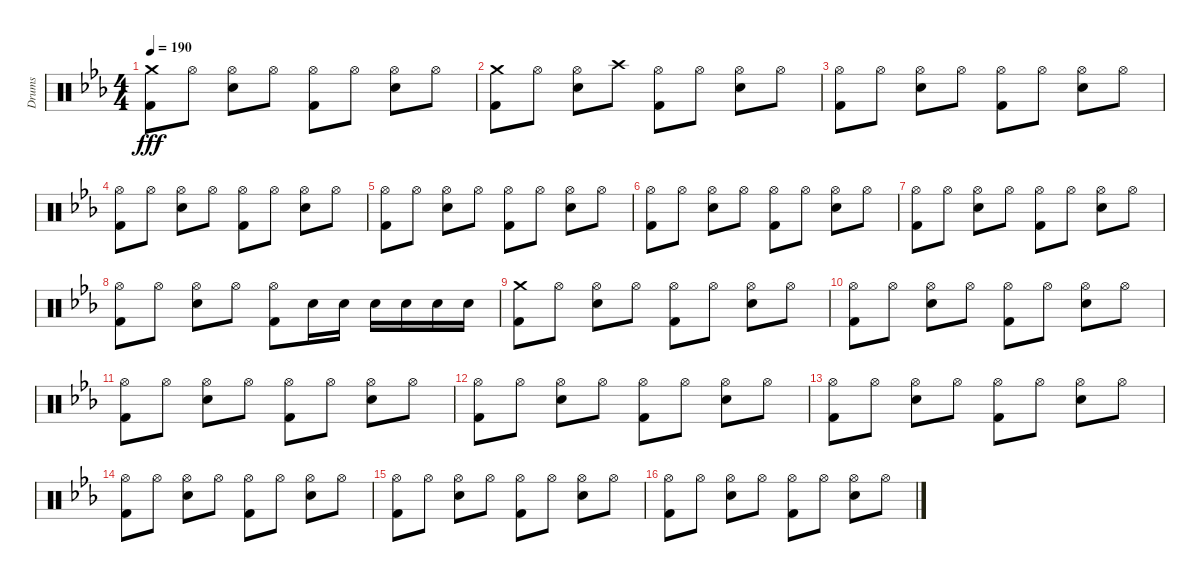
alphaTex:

\track ("Drums" "Drums") {instrument percussion}
\staff {score}
\articulation defaults
\ts (4 4)
\tempo 190
\clef neutral
\ks eb
("Crash medium (hit)" "Kick (hit) 2").8{dy fff} "Hi-Hat (open)".8 ("Hi-Hat (open)" "Electric Snare (hit)").8 "Hi-Hat (open)".8 ("Hi-Hat (open)" "Kick (hit) 2").8 "Hi-Hat (open)".8 ("Hi-Hat (open)" "Electric Snare (hit)").8 "Hi-Hat (open)".8 |
("Crash medium (hit)" "Kick (hit) 2").8 "Hi-Hat (open)".8 ("Hi-Hat (open)" "Electric Snare (hit)").8 "Crash high (hit)".8 ("Hi-Hat (open)" "Kick (hit) 2").8 "Hi-Hat (open)".8 ("Hi-Hat (open)" "Electric Snare (hit)").8 "Hi-Hat (open)".8 |
("Hi-Hat (open)" "Kick (hit) 2").8 "Hi-Hat (open)".8 ("Hi-Hat (open)" "Electric Snare (hit)").8 "Hi-Hat (open)".8 ("Hi-Hat (open)" "Kick (hit) 2").8 "Hi-Hat (open)".8 ("Hi-Hat (open)" "Electric Snare (hit)").8 "Hi-Hat (open)".8 |
("Hi-Hat (open)" "Kick (hit) 2").8 "Hi-Hat (open)".8 ("Hi-Hat (open)" "Electric Snare (hit)").8 "Hi-Hat (open)".8 ("Hi-Hat (open)" "Kick (hit) 2").8 "Hi-Hat (open)".8 ("Hi-Hat (open)" "Electric Snare (hit)").8 "Hi-Hat (open)".8 |
("Hi-Hat (open)" "Kick (hit) 2").8 "Hi-Hat (open)".8 ("Hi-Hat (open)" "Electric Snare (hit)").8 "Hi-Hat (open)".8 ("Hi-Hat (open)" "Kick (hit) 2").8 "Hi-Hat (open)".8 ("Hi-Hat (open)" "Electric Snare (hit)").8 "Hi-Hat (open)".8 |
("Hi-Hat (open)" "Kick (hit) 2").8 "Hi-Hat (open)".8 ("Hi-Hat (open)" "Electric Snare (hit)").8 "Hi-Hat (open)".8 ("Hi-Hat (open)" "Kick (hit) 2").8 "Hi-Hat (open)".8 ("Hi-Hat (open)" "Electric Snare (hit)").8 "Hi-Hat (open)".8 |
("Hi-Hat (open)" "Kick (hit) 2").8 "Hi-Hat (open)".8 ("Hi-Hat (open)" "Electric Snare (hit)").8 "Hi-Hat (open)".8 ("Hi-Hat (open)" "Kick (hit) 2").8 "Hi-Hat (open)".8 ("Hi-Hat (open)" "Electric Snare (hit)").8 "Hi-Hat (open)".8 |
("Hi-Hat (open)" "Kick (hit) 2").8 "Hi-Hat (open)".8 ("Hi-Hat (open)" "Electric Snare (hit)").8 "Hi-Hat (open)".8 ("Hi-Hat (open)" "Kick (hit) 2").8 "Electric Snare (hit)".16 "Electric Snare (hit)".16 "Electric Snare (hit)".16 "Electric Snare (hit)".16 "Electric Snare (hit)".16 "Electric Snare (hit)".16 |
("Crash medium (hit)" "Kick (hit) 2").8 "Hi-Hat (open)".8 ("Hi-Hat (open)" "Electric Snare (hit)").8 "Hi-Hat (open)".8 ("Hi-Hat (open)" "Kick (hit) 2").8 "Hi-Hat (open)".8 ("Hi-Hat (open)" "Electric Snare (hit)").8 "Hi-Hat (open)".8 |
("Hi-Hat (open)" "Kick (hit) 2").8 "Hi-Hat (open)".8 ("Hi-Hat (open)" "Electric Snare (hit)").8 "Hi-Hat (open)".8 ("Hi-Hat (open)" "Kick (hit) 2").8 "Hi-Hat (open)".8 ("Hi-Hat (open)" "Electric Snare (hit)").8 "Hi-Hat (open)".8 |
("Hi-Hat (open)" "Kick (hit) 2").8 "Hi-Hat (open)".8 ("Hi-Hat (open)" "Electric Snare (hit)").8 "Hi-Hat (open)".8 ("Hi-Hat (open)" "Kick (hit) 2").8 "Hi-Hat (open)".8 ("Hi-Hat (open)" "Electric Snare (hit)").8 "Hi-Hat (open)".8 |
("Hi-Hat (open)" "Kick (hit) 2").8 "Hi-Hat (open)".8 ("Hi-Hat (open)" "Electric Snare (hit)").8 "Hi-Hat (open)".8 ("Hi-Hat (open)" "Kick (hit) 2").8 "Hi-Hat (open)".8 ("Hi-Hat (open)" "Electric Snare (hit)").8 "Hi-Hat (open)".8 |
("Hi-Hat (open)" "Kick (hit) 2").8 "Hi-Hat (open)".8 ("Hi-Hat (open)" "Electric Snare (hit)").8 "Hi-Hat (open)".8 ("Hi-Hat (open)" "Kick (hit) 2").8 "Hi-Hat (open)".8 ("Hi-Hat (open)" "Electric Snare (hit)").8 "Hi-Hat (open)".8 |
("Hi-Hat (open)" "Kick (hit) 2").8 "Hi-Hat (open)".8 ("Hi-Hat (open)" "Electric Snare (hit)").8 "Hi-Hat (open)".8 ("Hi-Hat (open)" "Kick (hit) 2").8 "Hi-Hat (open)".8 ("Hi-Hat (open)" "Electric Snare (hit)").8 "Hi-Hat (open)".8 |
("Hi-Hat (open)" "Kick (hit) 2").8 "Hi-Hat (open)".8 ("Hi-Hat (open)" "Electric Snare (hit)").8 "Hi-Hat (open)".8 ("Hi-Hat (open)" "Kick (hit) 2").8 "Hi-Hat (open)".8 ("Hi-Hat (open)" "Electric Snare (hit)").8 "Hi-Hat (open)".8 |
("Hi-Hat (open)" "Kick (hit) 2").8 "Hi-Hat (open)".8 ("Hi-Hat (open)" "Electric Snare (hit)").8 "Hi-Hat (open)".8 ("Hi-Hat (open)" "Kick (hit) 2").8 "Hi-Hat (open)".8 ("Hi-Hat (open)" "Electric Snare (hit)").8 "Hi-Hat (open)".8
